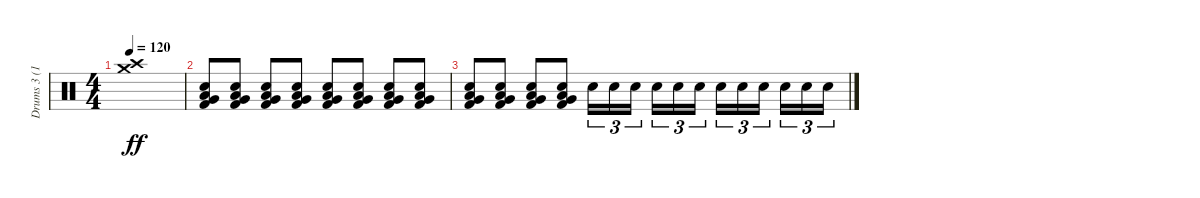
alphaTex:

\track ("Drums 3 (16)" "Drums 3 (1") {instrument percussion}
\staff {score}
\articulation defaults
\ts (4 4)
\tempo 120
\clef neutral
\ks c
("Crash high (hit)" "Crash medium (hit)").1{dy ff} |
("Kick (hit) 2" "Snare (hit) 2" "Low Floor Tom (hit)" "Very Low Tom (hit)").8{volume 4} ("Kick (hit) 2" "Snare (hit) 2" "Low Floor Tom (hit)" "Very Low Tom (hit)").8{volume 5} ("Kick (hit) 2" "Snare (hit) 2" "Low Floor Tom (hit)" "Very Low Tom (hit)").8{volume 6} ("Kick (hit) 2" "Snare (hit) 2" "Low Floor Tom (hit)" "Very Low Tom (hit)").8{volume 7} ("Kick (hit) 2" "Snare (hit) 2" "Low Floor Tom (hit)" "Very Low Tom (hit)").8{volume 8} ("Kick (hit) 2" "Snare (hit) 2" "Low Floor Tom (hit)" "Very Low Tom (hit)").8{volume 9} ("Kick (hit) 2" "Snare (hit) 2" "Low Floor Tom (hit)" "Very Low Tom (hit)").8{volume 10} ("Kick (hit) 2" "Snare (hit) 2" "Low Floor Tom (hit)" "Very Low Tom (hit)").8{volume 11} |
("Kick (hit) 2" "Snare (hit) 2" "Low Floor Tom (hit)" "Very Low Tom (hit)").8{volume 12} ("Kick (hit) 2" "Snare (hit) 2" "Low Floor Tom (hit)" "Very Low Tom (hit)").8{volume 13} ("Kick (hit) 2" "Snare (hit) 2" "Low Floor Tom (hit)" "Very Low Tom (hit)").8{volume 14} ("Kick (hit) 2" "Snare (hit) 2" "Low Floor Tom (hit)" "Very Low Tom (hit)").8{volume 15} "Snare (hit) 2".16{tu (3 2) volume 16 balance 15} "Snare (hit) 2".16{tu (3 2)} "Snare (hit) 2".16{tu (3 2) balance 15} "Snare (hit) 2".16{tu (3 2) balance 8} "Snare (hit) 2".16{tu (3 2)} "Snare (hit) 2".16{tu (3 2) balance 8} "Snare (hit) 2".16{tu (3 2) balance 1} "Snare (hit) 2".16{tu (3 2)} "Snare (hit) 2".16{tu (3 2) balance 1} "Snare (hit) 2".16{tu (3 2) balance 8} "Snare (hit) 2".16{tu (3 2)} "Snare (hit) 2".16{tu (3 2) balance 8}
